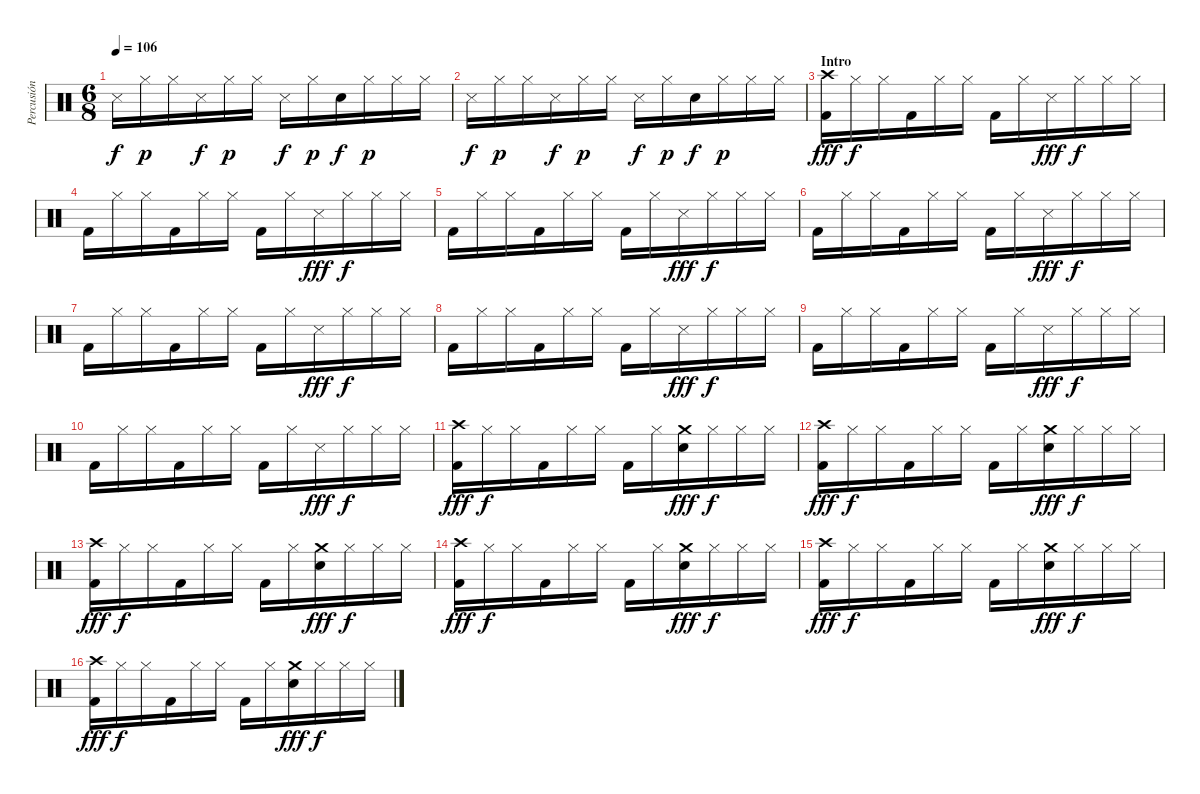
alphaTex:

\track ("Percusión" "Percusión") {instrument percussion}
\staff {score}
\articulation defaults
\ts (6 8)
\tempo 106
\clef neutral
\ks c "Snare (side stick) 3".16{dy f} "Hi-Hat (closed)".16{dy p} "Hi-Hat (closed)".16 "Snare (side stick) 3".16{dy f} "Hi-Hat (closed)".16{dy p} "Hi-Hat (closed)".16 "Snare (side stick) 3".16{dy f} "Hi-Hat (closed)".16{dy p} "Hand Clap (hit)".16{dy f} "Hi-Hat (closed)".16{dy p} "Hi-Hat (closed)".16 "Hi-Hat (closed)".16
|
"Snare (side stick) 3".16{dy f} "Hi-Hat (closed)".16{dy p} "Hi-Hat (closed)".16 "Snare (side stick) 3".16{dy f} "Hi-Hat (closed)".16{dy p} "Hi-Hat (closed)".16 "Snare (side stick) 3".16{dy f} "Hi-Hat (closed)".16{dy p} "Hand Clap (hit)".16{dy f} "Hi-Hat (closed)".16{dy p} "Hi-Hat (closed)".16 "Hi-Hat (closed)".16 |
\section ("" "Intro")
("Kick (hit) 2" "Crash high (hit)").16{dy fff} "Hi-Hat (closed)".16{dy f} "Hi-Hat (closed)".16 "Kick (hit) 2".16 "Hi-Hat (closed)".16 "Hi-Hat (closed)".16 "Kick (hit) 2".16 "Hi-Hat (closed)".16 "Snare (side stick) 3".16{dy fff} "Hi-Hat (closed)".16{dy f} "Hi-Hat (closed)".16 "Hi-Hat (closed)".16 |
"Kick (hit) 2".16 "Hi-Hat (closed)".16 "Hi-Hat (closed)".16 "Kick (hit) 2".16 "Hi-Hat (closed)".16 "Hi-Hat (closed)".16 "Kick (hit) 2".16 "Hi-Hat (closed)".16 "Snare (side stick) 3".16{dy fff} "Hi-Hat (closed)".16{dy f} "Hi-Hat (closed)".16 "Hi-Hat (closed)".16 |
"Kick (hit) 2".16 "Hi-Hat (closed)".16 "Hi-Hat (closed)".16 "Kick (hit) 2".16 "Hi-Hat (closed)".16 "Hi-Hat (closed)".16 "Kick (hit) 2".16 "Hi-Hat (closed)".16 "Snare (side stick) 3".16{dy fff} "Hi-Hat (closed)".16{dy f} "Hi-Hat (closed)".16 "Hi-Hat (closed)".16 |
"Kick (hit) 2".16 "Hi-Hat (closed)".16 "Hi-Hat (closed)".16 "Kick (hit) 2".16 "Hi-Hat (closed)".16 "Hi-Hat (closed)".16 "Kick (hit) 2".16 "Hi-Hat (closed)".16 "Snare (side stick) 3".16{dy fff} "Hi-Hat (closed)".16{dy f} "Hi-Hat (closed)".16 "Hi-Hat (closed)".16 |
"Kick (hit) 2".16 "Hi-Hat (closed)".16 "Hi-Hat (closed)".16 "Kick (hit) 2".16 "Hi-Hat (closed)".16 "Hi-Hat (closed)".16 "Kick (hit) 2".16 "Hi-Hat (closed)".16 "Snare (side stick) 3".16{dy fff} "Hi-Hat (closed)".16{dy f} "Hi-Hat (closed)".16 "Hi-Hat (closed)".16 |
"Kick (hit) 2".16 "Hi-Hat (closed)".16 "Hi-Hat (closed)".16 "Kick (hit) 2".16 "Hi-Hat (closed)".16 "Hi-Hat (closed)".16 "Kick (hit) 2".16 "Hi-Hat (closed)".16 "Snare (side stick) 3".16{dy fff} "Hi-Hat (closed)".16{dy f} "Hi-Hat (closed)".16 "Hi-Hat (closed)".16 |
"Kick (hit) 2".16 "Hi-Hat (closed)".16 "Hi-Hat (closed)".16 "Kick (hit) 2".16 "Hi-Hat (closed)".16 "Hi-Hat (closed)".16 "Kick (hit) 2".16 "Hi-Hat (closed)".16 "Snare (side stick) 3".16{dy fff} "Hi-Hat (closed)".16{dy f} "Hi-Hat (closed)".16 "Hi-Hat (closed)".16 |
"Kick (hit) 2".16 "Hi-Hat (closed)".16 "Hi-Hat (closed)".16 "Kick (hit) 2".16 "Hi-Hat (closed)".16 "Hi-Hat (closed)".16 "Kick (hit) 2".16 "Hi-Hat (closed)".16 "Snare (side stick) 3".16{dy fff} "Hi-Hat (closed)".16{dy f} "Hi-Hat (closed)".16 "Hi-Hat (closed)".16 |
("Kick (hit) 2" "Crash high (hit)").16{dy fff} "Hi-Hat (closed)".16{dy f} "Hi-Hat (closed)".16 "Kick (hit) 2".16 "Hi-Hat (closed)".16 "Hi-Hat (closed)".16 "Kick (hit) 2".16 "Hi-Hat (closed)".16 ("Snare (hit) 2" "Crash medium (hit)").16{dy fff} "Hi-Hat (closed)".16{dy f} "Hi-Hat (closed)".16 "Hi-Hat (closed)".16 |
("Kick (hit) 2" "Crash high (hit)").16{dy fff} "Hi-Hat (closed)".16{dy f} "Hi-Hat (closed)".16 "Kick (hit) 2".16 "Hi-Hat (closed)".16 "Hi-Hat (closed)".16 "Kick (hit) 2".16 "Hi-Hat (closed)".16 ("Snare (hit) 2" "Crash medium (hit)").16{dy fff} "Hi-Hat (closed)".16{dy f} "Hi-Hat (closed)".16 "Hi-Hat (closed)".16 |
("Kick (hit) 2" "Crash high (hit)").16{dy fff} "Hi-Hat (closed)".16{dy f} "Hi-Hat (closed)".16 "Kick (hit) 2".16 "Hi-Hat (closed)".16 "Hi-Hat (closed)".16 "Kick (hit) 2".16 "Hi-Hat (closed)".16 ("Snare (hit) 2" "Crash medium (hit)").16{dy fff} "Hi-Hat (closed)".16{dy f} "Hi-Hat (closed)".16 "Hi-Hat (closed)".16 |
("Kick (hit) 2" "Crash high (hit)").16{dy fff} "Hi-Hat (closed)".16{dy f} "Hi-Hat (closed)".16 "Kick (hit) 2".16 "Hi-Hat (closed)".16 "Hi-Hat (closed)".16 "Kick (hit) 2".16 "Hi-Hat (closed)".16 ("Snare (hit) 2" "Crash medium (hit)").16{dy fff} "Hi-Hat (closed)".16{dy f} "Hi-Hat (closed)".16 "Hi-Hat (closed)".16 |
("Kick (hit) 2" "Crash high (hit)").16{dy fff} "Hi-Hat (closed)".16{dy f} "Hi-Hat (closed)".16 "Kick (hit) 2".16 "Hi-Hat (closed)".16 "Hi-Hat (closed)".16 "Kick (hit) 2".16 "Hi-Hat (closed)".16 ("Snare (hit) 2" "Crash medium (hit)").16{dy fff} "Hi-Hat (closed)".16{dy f} "Hi-Hat (closed)".16 "Hi-Hat (closed)".16 |
("Kick (hit) 2" "Crash high (hit)").16{dy fff} "Hi-Hat (closed)".16{dy f} "Hi-Hat (closed)".16 "Kick (hit) 2".16 "Hi-Hat (closed)".16 "Hi-Hat (closed)".16 "Kick (hit) 2".16 "Hi-Hat (closed)".16 ("Snare (hit) 2" "Crash medium (hit)").16{dy fff} "Hi-Hat (closed)".16{dy f} "Hi-Hat (closed)".16 "Hi-Hat (closed)".16
